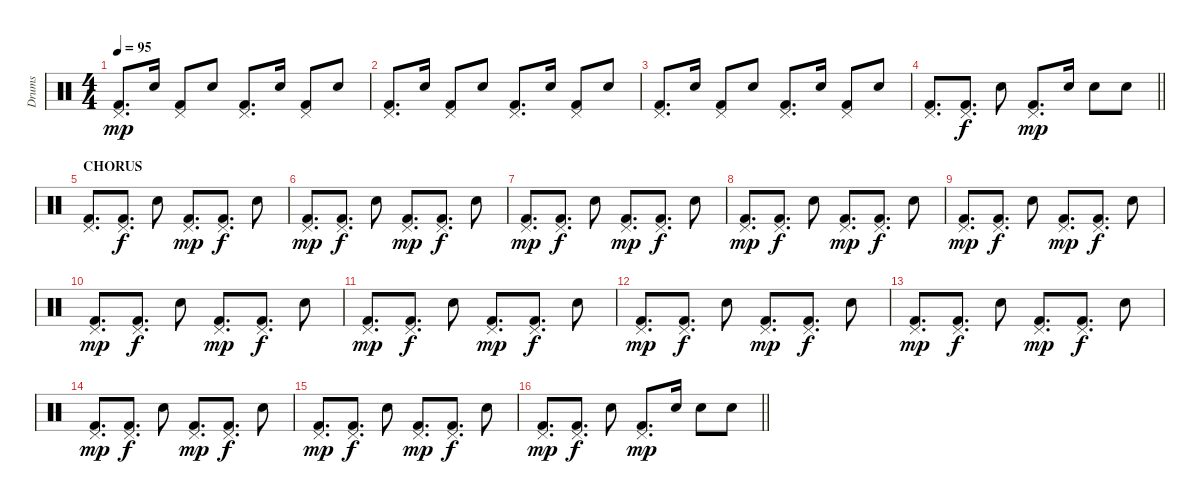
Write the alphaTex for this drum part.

\track ("Drums" "Drums") {instrument percussion}
\staff {score}
\articulation defaults
\ts (4 4)
\tempo 95
\clef neutral
\ks c
("Pedal Hi-Hat (hit)" "Kick (hit) 2").8{d dy mp} "Snare (hit) 2".16 ("Pedal Hi-Hat (hit)" "Kick (hit) 2").8 "Snare (hit) 2".8 ("Pedal Hi-Hat (hit)" "Kick (hit) 2").8{d} "Snare (hit) 2".16 ("Pedal Hi-Hat (hit)" "Kick (hit) 2").8 "Snare (hit) 2".8 |
("Pedal Hi-Hat (hit)" "Kick (hit) 2").8{d} "Snare (hit) 2".16 ("Pedal Hi-Hat (hit)" "Kick (hit) 2").8 "Snare (hit) 2".8 ("Pedal Hi-Hat (hit)" "Kick (hit) 2").8{d} "Snare (hit) 2".16 ("Pedal Hi-Hat (hit)" "Kick (hit) 2").8 "Snare (hit) 2".8 |
("Pedal Hi-Hat (hit)" "Kick (hit) 2").8{d} "Snare (hit) 2".16 ("Pedal Hi-Hat (hit)" "Kick (hit) 2").8 "Snare (hit) 2".8 ("Pedal Hi-Hat (hit)" "Kick (hit) 2").8{d} "Snare (hit) 2".16 ("Pedal Hi-Hat (hit)" "Kick (hit) 2").8 "Snare (hit) 2".8 |
\barLineRight lightlight
("Pedal Hi-Hat (hit)" "Kick (hit) 2").8{d} ("Pedal Hi-Hat (hit)" "Kick (hit) 2").8{d dy f} "Snare (hit) 2".8 ("Pedal Hi-Hat (hit)" "Kick (hit) 2").8{d dy mp} "Snare (hit) 2".16 "Snare (hit) 2".8 "Snare (hit) 2".8 |
\section ("" "CHORUS")
("Pedal Hi-Hat (hit)" "Kick (hit) 2").8{d} ("Pedal Hi-Hat (hit)" "Kick (hit) 2").8{d dy f} "Snare (hit) 2".8 ("Pedal Hi-Hat (hit)" "Kick (hit) 2").8{d dy mp} ("Pedal Hi-Hat (hit)" "Kick (hit) 2").8{d dy f} "Snare (hit) 2".8 |
("Pedal Hi-Hat (hit)" "Kick (hit) 2").8{d dy mp} ("Pedal Hi-Hat (hit)" "Kick (hit) 2").8{d dy f} "Snare (hit) 2".8 ("Pedal Hi-Hat (hit)" "Kick (hit) 2").8{d dy mp} ("Pedal Hi-Hat (hit)" "Kick (hit) 2").8{d dy f} "Snare (hit) 2".8 |
("Pedal Hi-Hat (hit)" "Kick (hit) 2").8{d dy mp} ("Pedal Hi-Hat (hit)" "Kick (hit) 2").8{d dy f} "Snare (hit) 2".8 ("Pedal Hi-Hat (hit)" "Kick (hit) 2").8{d dy mp} ("Pedal Hi-Hat (hit)" "Kick (hit) 2").8{d dy f} "Snare (hit) 2".8 |
("Pedal Hi-Hat (hit)" "Kick (hit) 2").8{d dy mp} ("Pedal Hi-Hat (hit)" "Kick (hit) 2").8{d dy f} "Snare (hit) 2".8 ("Pedal Hi-Hat (hit)" "Kick (hit) 2").8{d dy mp} ("Pedal Hi-Hat (hit)" "Kick (hit) 2").8{d dy f} "Snare (hit) 2".8 |
("Pedal Hi-Hat (hit)" "Kick (hit) 2").8{d dy mp} ("Pedal Hi-Hat (hit)" "Kick (hit) 2").8{d dy f} "Snare (hit) 2".8 ("Pedal Hi-Hat (hit)" "Kick (hit) 2").8{d dy mp} ("Pedal Hi-Hat (hit)" "Kick (hit) 2").8{d dy f} "Snare (hit) 2".8 |
("Pedal Hi-Hat (hit)" "Kick (hit) 2").8{d dy mp} ("Pedal Hi-Hat (hit)" "Kick (hit) 2").8{d dy f} "Snare (hit) 2".8 ("Pedal Hi-Hat (hit)" "Kick (hit) 2").8{d dy mp} ("Pedal Hi-Hat (hit)" "Kick (hit) 2").8{d dy f} "Snare (hit) 2".8 |
("Pedal Hi-Hat (hit)" "Kick (hit) 2").8{d dy mp} ("Pedal Hi-Hat (hit)" "Kick (hit) 2").8{d dy f} "Snare (hit) 2".8 ("Pedal Hi-Hat (hit)" "Kick (hit) 2").8{d dy mp} ("Pedal Hi-Hat (hit)" "Kick (hit) 2").8{d dy f} "Snare (hit) 2".8 |
("Pedal Hi-Hat (hit)" "Kick (hit) 2").8{d dy mp} ("Pedal Hi-Hat (hit)" "Kick (hit) 2").8{d dy f} "Snare (hit) 2".8 ("Pedal Hi-Hat (hit)" "Kick (hit) 2").8{d dy mp} ("Pedal Hi-Hat (hit)" "Kick (hit) 2").8{d dy f} "Snare (hit) 2".8 |
("Pedal Hi-Hat (hit)" "Kick (hit) 2").8{d dy mp} ("Pedal Hi-Hat (hit)" "Kick (hit) 2").8{d dy f} "Snare (hit) 2".8 ("Pedal Hi-Hat (hit)" "Kick (hit) 2").8{d dy mp} ("Pedal Hi-Hat (hit)" "Kick (hit) 2").8{d dy f} "Snare (hit) 2".8 |
("Pedal Hi-Hat (hit)" "Kick (hit) 2").8{d dy mp} ("Pedal Hi-Hat (hit)" "Kick (hit) 2").8{d dy f} "Snare (hit) 2".8 ("Pedal Hi-Hat (hit)" "Kick (hit) 2").8{d dy mp} ("Pedal Hi-Hat (hit)" "Kick (hit) 2").8{d dy f} "Snare (hit) 2".8 |
("Pedal Hi-Hat (hit)" "Kick (hit) 2").8{d dy mp} ("Pedal Hi-Hat (hit)" "Kick (hit) 2").8{d dy f} "Snare (hit) 2".8 ("Pedal Hi-Hat (hit)" "Kick (hit) 2").8{d dy mp} ("Pedal Hi-Hat (hit)" "Kick (hit) 2").8{d dy f} "Snare (hit) 2".8 |
\barLineRight lightlight
("Pedal Hi-Hat (hit)" "Kick (hit) 2").8{d dy mp} ("Pedal Hi-Hat (hit)" "Kick (hit) 2").8{d dy f} "Snare (hit) 2".8 ("Pedal Hi-Hat (hit)" "Kick (hit) 2").8{d dy mp} "Snare (hit) 2".16 "Snare (hit) 2".8 "Snare (hit) 2".8
